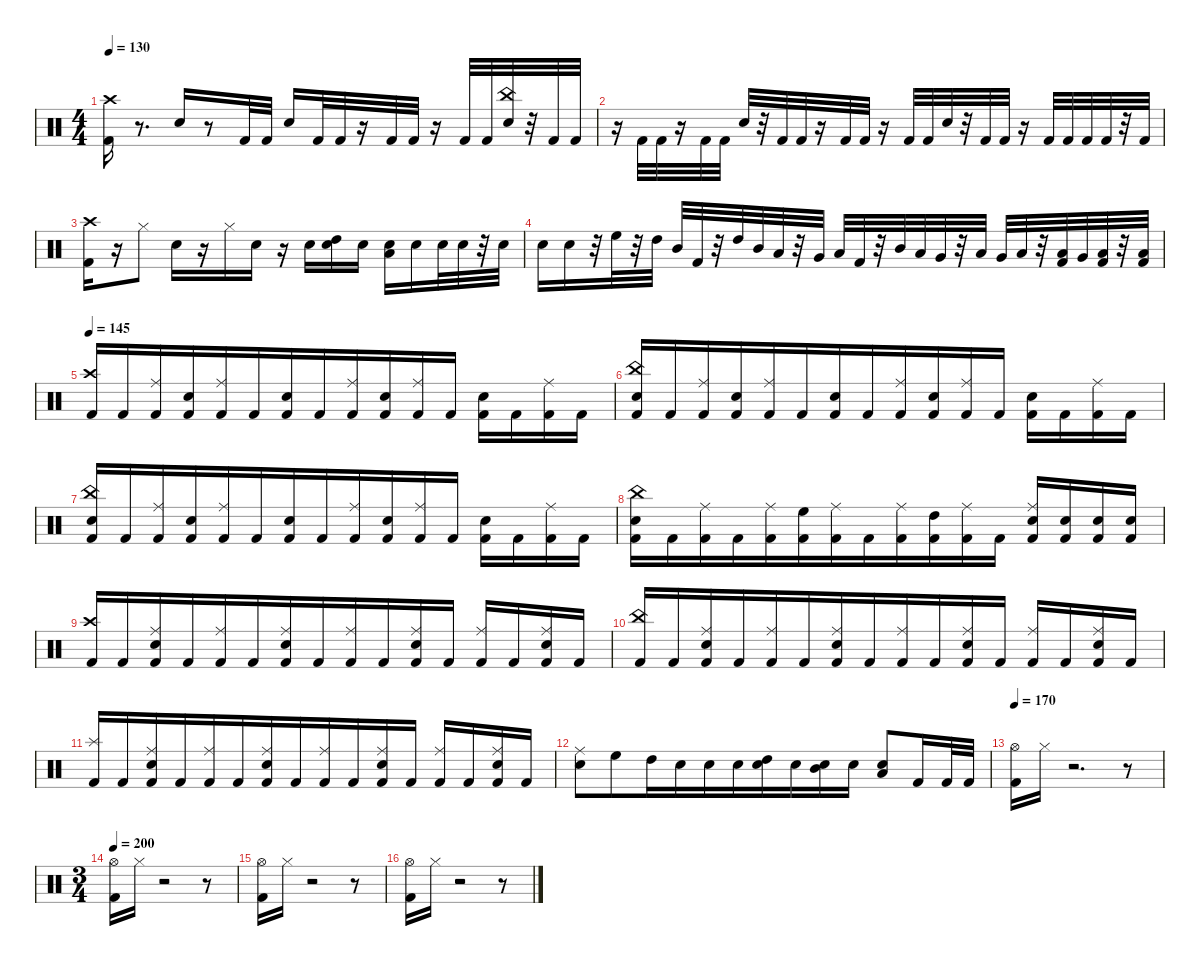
\defaultSystemsLayout 4
\hideDynamics
\bracketExtendMode nobrackets
\singleTrackTrackNamePolicy hidden
\multiTrackTrackNamePolicy hidden
\firstSystemTrackNameMode fullname
\otherSystemsTrackNameOrientation horizontal
\track ("Drums" "drm.") {instrument percussion}
\staff {score}
\articulation defaults
\ts (4 4)
\tempo 130
\clef neutral
\ks c
("Crash high (hit)" "Kick (hit) 2").16{dy f beam Down} r.8{d beam Down} "Snare (hit) 2".16{beam Up} r.8{beam Up} "Kick (hit) 2".32{beam Up} "Kick (hit) 2".32{beam Up} "Snare (hit) 2".16{beam Up} "Kick (hit) 2".32{beam Up} "Kick (hit) 2".32{beam Up} r.16{beam Up} "Kick (hit) 2".32{beam Up} "Kick (hit) 2".32{beam Up} r.16{beam Up} "Kick (hit) 2".32{beam Down} "Kick (hit) 2".32{beam Down} ("China (hit)" "Snare (hit) 2").32{beam Down} r.32{beam Down} "Kick (hit) 2".32{beam Down} "Kick (hit) 2".32{beam Down} |
r.16{beam Down} "Kick (hit) 2".32{beam Up} "Kick (hit) 2".32{beam Up} r.16{beam Up} "Kick (hit) 2".32{beam Up} "Kick (hit) 2".32{beam Up} "Snare (hit) 2".32{beam Up} r.32{beam Up} "Kick (hit) 2".32{beam Up} "Kick (hit) 2".32{beam Up} r.16{beam Up} "Kick (hit) 2".32{beam Up} "Kick (hit) 2".32{beam Up} r.16{beam Up} "Kick (hit) 2".32{beam Up} "Kick (hit) 2".32{beam Up} "Snare (hit) 2".32{beam Up} r.32{beam Up} "Kick (hit) 2".32{beam Up} "Kick (hit) 2".32{beam Up} r.16{beam Up} "Kick (hit) 2".32{beam Up} "Kick (hit) 2".32{beam Up} "Kick (hit) 2".32{beam Up} "Kick (hit) 2".32{beam Up} r.32{beam Up} "Kick (hit) 2".32{beam Up} |
("Crash high (hit)" "Kick (hit) 2").16{beam Down} r.16{beam Down} "Hi-Hat (closed)".8{beam Down} "Snare (hit) 2".16{beam Down} r.16{beam Down} "Hi-Hat (closed)".16{beam Down} "Snare (hit) 2".16{beam Down} r.16{beam Down} "Snare (hit) 2".16{beam Down} ("High Tom (hit)" "Snare (hit) 2").16{beam Down} "Snare (hit) 2".16{dy mp beam Down} ("Low Tom (hit)" "Snare (hit) 2").16{dy f beam Down} "Snare (hit) 2".16{dy mp beam Down} "Snare (hit) 2".32{beam Down} "Snare (hit) 2".32{beam Down} r.32{beam Down} "Snare (hit) 2".32{beam Down} |
"Snare (hit) 2".16{dy f beam Down} "Snare (hit) 2".16{beam Down} r.32{beam Down} "High Floor Tom (hit)".32{dy mf beam Down} r.32{beam Down} "High Tom (hit)".32{beam Down} "Mid Tom (hit)".32{beam Up} "Kick (hit) 2".32{dy f beam Up} r.32{beam Up} "High Tom (hit)".32{beam Up} "Mid Tom (hit)".32{beam Up} "Low Tom (hit)".32{beam Up} r.32{beam Up} "Very Low Tom (hit)".32{beam Up} "Low Floor Tom (hit)".32{dy mf beam Up} "Kick (hit) 2".32{beam Up} r.32{beam Up} "Mid Tom (hit)".32{beam Up} "Low Tom (hit)".32{beam Up} "Very Low Tom (hit)".32{beam Up} r.32{beam Up} "Low Floor Tom (hit)".32{beam Up} "Very Low Tom (hit)".32{beam Up} "Low Floor Tom (hit)".32{beam Up} r.32{beam Up} ("Kick (hit) 2" "Low Floor Tom (hit)").32{beam Up} "Very Low Tom (hit)".32{beam Up} ("Kick (hit) 2" "Low Floor Tom (hit)").32{beam Up} r.32{beam Up} ("Kick (hit) 2" "Low Floor Tom (hit)").32{beam Up} |
\beaming (8 6 4)
\tempo 145
("Kick (hit) 2" "Crash high (hit)").16{dy fff beam Up} "Kick (hit) 2".16{beam Up} ("Kick (hit) 2" "Ride (middle)").16{beam Up} ("Kick (hit) 2" "Snare (hit) 2").16{beam Up} ("Kick (hit) 2" "Ride (middle)").16{beam Up} "Kick (hit) 2".16{beam Up} ("Kick (hit) 2" "Snare (hit) 2").16{beam Up} "Kick (hit) 2".16{beam Up} ("Kick (hit) 2" "Ride (middle)").16{beam Up} ("Kick (hit) 2" "Snare (hit) 2").16{beam Up} ("Kick (hit) 2" "Ride (middle)").16{beam Up} "Kick (hit) 2".16{beam Up} ("Kick (hit) 2" "Snare (hit) 2").16{beam Down} "Kick (hit) 2".16{beam Down} ("Kick (hit) 2" "Ride (middle)").16{beam Down} "Kick (hit) 2".16{beam Down} |
("Kick (hit) 2" "Snare (hit) 2" "China (hit)").16{beam Up} "Kick (hit) 2".16{beam Up} ("Kick (hit) 2" "Ride (middle)").16{beam Up} ("Kick (hit) 2" "Snare (hit) 2").16{beam Up} ("Kick (hit) 2" "Ride (middle)").16{beam Up} "Kick (hit) 2".16{beam Up} ("Kick (hit) 2" "Snare (hit) 2").16{beam Up} "Kick (hit) 2".16{beam Up} ("Kick (hit) 2" "Ride (middle)").16{beam Up} ("Kick (hit) 2" "Snare (hit) 2").16{beam Up} ("Kick (hit) 2" "Ride (middle)").16{beam Up} "Kick (hit) 2".16{beam Up} ("Kick (hit) 2" "Snare (hit) 2").16{beam Down} "Kick (hit) 2".16{beam Down} ("Kick (hit) 2" "Ride (middle)").16{beam Down} "Kick (hit) 2".16{beam Down} |
("Kick (hit) 2" "Snare (hit) 2" "China (hit)").16{beam Up} "Kick (hit) 2".16{beam Up} ("Kick (hit) 2" "Ride (middle)").16{beam Up} ("Kick (hit) 2" "Snare (hit) 2").16{beam Up} ("Kick (hit) 2" "Ride (middle)").16{beam Up} "Kick (hit) 2".16{beam Up} ("Kick (hit) 2" "Snare (hit) 2").16{beam Up} "Kick (hit) 2".16{beam Up} ("Kick (hit) 2" "Ride (middle)").16{beam Up} ("Kick (hit) 2" "Snare (hit) 2").16{beam Up} ("Kick (hit) 2" "Ride (middle)").16{beam Up} "Kick (hit) 2".16{beam Up} ("Kick (hit) 2" "Snare (hit) 2").16{beam Down} "Kick (hit) 2".16{beam Down} ("Kick (hit) 2" "Ride (middle)").16{beam Down} "Kick (hit) 2".16{beam Down} |
("Snare (hit) 2" "Kick (hit) 2" "China (hit)").16{beam Down} "Kick (hit) 2".16{beam Down} ("Kick (hit) 2" "Ride (middle)").16{beam Down} "Kick (hit) 2".16{beam Down} ("Kick (hit) 2" "Ride (middle)").16{beam Down} ("Kick (hit) 2" "High Floor Tom (hit)").16{beam Down} ("Kick (hit) 2" "Ride (middle)").16{beam Down} "Kick (hit) 2".16{beam Down} ("Kick (hit) 2" "Ride (middle)").16{beam Down} ("Kick (hit) 2" "High Tom (hit)").16{beam Down} ("Kick (hit) 2" "Ride (middle)").16{beam Down} "Kick (hit) 2".16{beam Down} ("Kick (hit) 2" "Snare (hit) 2" "Ride (middle)").16{beam Up} ("Kick (hit) 2" "Snare (hit) 2").16{beam Up} ("Kick (hit) 2" "Snare (hit) 2").16{beam Up} ("Kick (hit) 2" "Snare (hit) 2").16{beam Up} |
("Kick (hit) 2" "Crash high (hit)").16{beam Up} "Kick (hit) 2".16{beam Up} ("Snare (hit) 2" "Kick (hit) 2" "Ride (middle)").16{beam Up} "Kick (hit) 2".16{beam Up} ("Kick (hit) 2" "Ride (middle)").16{beam Up} "Kick (hit) 2".16{beam Up} ("Snare (hit) 2" "Kick (hit) 2" "Ride (middle)").16{beam Up} "Kick (hit) 2".16{beam Up} ("Kick (hit) 2" "Ride (middle)").16{beam Up} "Kick (hit) 2".16{beam Up} ("Snare (hit) 2" "Kick (hit) 2" "Ride (middle)").16{beam Up} "Kick (hit) 2".16{beam Up} ("Kick (hit) 2" "Ride (middle)").16{beam Up} "Kick (hit) 2".16{beam Up} ("Snare (hit) 2" "Kick (hit) 2" "Ride (middle)").16{beam Up} "Kick (hit) 2".16{beam Up} |
("Kick (hit) 2" "China (hit)").16{beam Up} "Kick (hit) 2".16{beam Up} ("Snare (hit) 2" "Kick (hit) 2" "Ride (middle)").16{beam Up} "Kick (hit) 2".16{beam Up} ("Kick (hit) 2" "Ride (middle)").16{beam Up} "Kick (hit) 2".16{beam Up} ("Snare (hit) 2" "Kick (hit) 2" "Ride (middle)").16{beam Up} "Kick (hit) 2".16{beam Up} ("Kick (hit) 2" "Ride (middle)").16{beam Up} "Kick (hit) 2".16{beam Up} ("Snare (hit) 2" "Kick (hit) 2" "Ride (middle)").16{beam Up} "Kick (hit) 2".16{beam Up} ("Kick (hit) 2" "Ride (middle)").16{beam Up} "Kick (hit) 2".16{beam Up} ("Snare (hit) 2" "Kick (hit) 2" "Ride (middle)").16{beam Up} "Kick (hit) 2".16{beam Up} |
("Kick (hit) 2" "Splash (hit)").16{beam Up} "Kick (hit) 2".16{beam Up} ("Snare (hit) 2" "Kick (hit) 2" "Ride (middle)").16{beam Up} "Kick (hit) 2".16{beam Up} ("Kick (hit) 2" "Ride (middle)").16{beam Up} "Kick (hit) 2".16{beam Up} ("Snare (hit) 2" "Kick (hit) 2" "Ride (middle)").16{beam Up} "Kick (hit) 2".16{beam Up} ("Kick (hit) 2" "Ride (middle)").16{beam Up} "Kick (hit) 2".16{beam Up} ("Snare (hit) 2" "Kick (hit) 2" "Ride (middle)").16{beam Up} "Kick (hit) 2".16{beam Up} ("Kick (hit) 2" "Ride (middle)").16{beam Up} "Kick (hit) 2".16{beam Up} ("Kick (hit) 2" "Ride (middle)" "Snare (hit) 2").16{beam Up} "Kick (hit) 2".16{beam Up} |
("Ride (middle)" "Snare (hit) 2").8{beam Down} "High Floor Tom (hit)".8{beam Down} "High Tom (hit)".16{beam Down} "Snare (hit) 2".16{beam Down} "Snare (hit) 2".16{beam Down} "Snare (hit) 2".16{beam Down} ("High Tom (hit)" "Snare (hit) 2").16{beam Down} "Snare (hit) 2".16{beam Down} ("Mid Tom (hit)" "Snare (hit) 2").16{beam Down} "Snare (hit) 2".16{beam Down} ("Low Tom (hit)" "Snare (hit) 2").8{beam Up} "Kick (hit) 2".16{beam Up} "Kick (hit) 2".32{beam Up} "Kick (hit) 2".32{beam Up} |
\tempo 170
("Hi-Hat (open)" "Kick (hit) 2").16{beam Down} "Hi-Hat (closed)".16{beam Down} r.2{d beam Down} r.8{beam Down} |
\ts (3 4)
\beaming (8 2 2 2)
\tempo 200
("Hi-Hat (open)" "Kick (hit) 2").16{beam Down} "Hi-Hat (closed)".16{beam Down} r.2{beam Down} r.8{beam Down} |
("Hi-Hat (open)" "Kick (hit) 2").16{beam Down} "Hi-Hat (closed)".16{beam Down} r.2{beam Down} r.8{beam Down} |
("Hi-Hat (open)" "Kick (hit) 2").16{beam Down} "Hi-Hat (closed)".16{beam Down} r.2{beam Down} r.8{beam Down}
